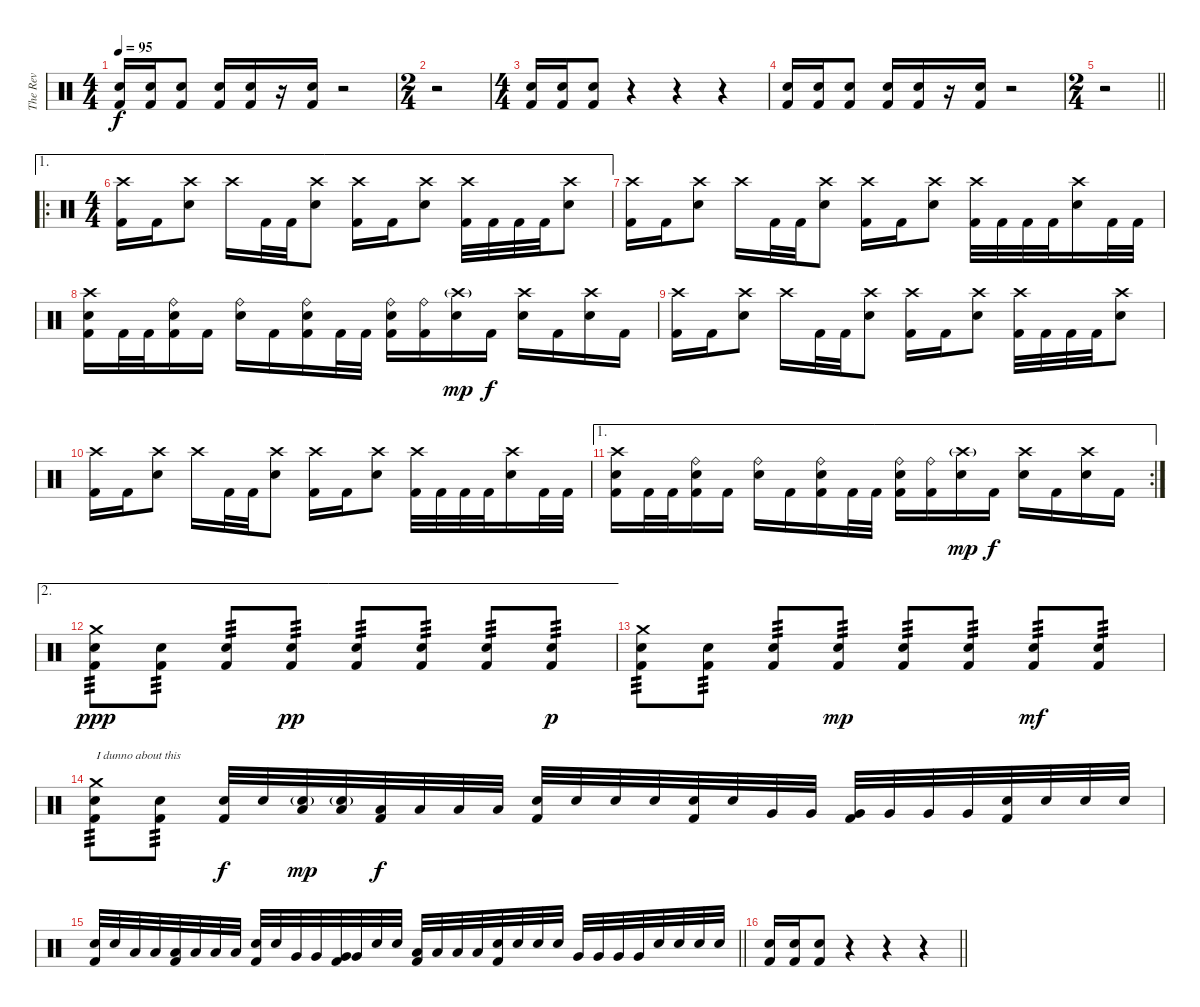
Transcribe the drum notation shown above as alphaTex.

\track ("The Rev" "The Rev") {instrument percussion}
\staff {score}
\articulation defaults
\ts (4 4)
\tempo 95
\clef neutral
\ks c
("Electric Snare (hit)" "Kick (hit) 2").16{dy f} ("Electric Snare (hit)" "Kick (hit) 2").16 ("Electric Snare (hit)" "Kick (hit) 2").8 ("Electric Snare (hit)" "Kick (hit) 2").16 ("Electric Snare (hit)" "Kick (hit) 2").16 r.16 ("Electric Snare (hit)" "Kick (hit) 2").16 r.2 |
\ts (2 4)
r.2 |
\ts (4 4)
("Electric Snare (hit)" "Kick (hit) 2").16 ("Electric Snare (hit)" "Kick (hit) 2").16 ("Electric Snare (hit)" "Kick (hit) 2").8 r.4 r.4 r.4 |
("Electric Snare (hit)" "Kick (hit) 2").16 ("Electric Snare (hit)" "Kick (hit) 2").16 ("Electric Snare (hit)" "Kick (hit) 2").8 ("Electric Snare (hit)" "Kick (hit) 2").16 ("Electric Snare (hit)" "Kick (hit) 2").16 r.16 ("Electric Snare (hit)" "Kick (hit) 2").16 r.2 |
\ts (2 4)
\barLineRight lightlight
r.2 |
\ae 1
\ro
\ts (4 4)
("Crash high (hit)" "Kick (hit) 2").16 "Kick (hit) 2".16 ("Crash high (hit)" "Electric Snare (hit)").8 "Crash high (hit)".16 "Kick (hit) 2".32 "Kick (hit) 2".32 ("Crash high (hit)" "Electric Snare (hit)").8 ("Crash high (hit)" "Kick (hit) 2").16 "Kick (hit) 2".16 ("Crash high (hit)" "Electric Snare (hit)").8 ("Crash high (hit)" "Kick (hit) 2").32 "Kick (hit) 2".32 "Kick (hit) 2".32 "Kick (hit) 2".32 ("Crash high (hit)" "Electric Snare (hit)").8 |
("Crash high (hit)" "Kick (hit) 2").16 "Kick (hit) 2".16 ("Crash high (hit)" "Electric Snare (hit)").8 "Crash high (hit)".16 "Kick (hit) 2".32 "Kick (hit) 2".32 ("Crash high (hit)" "Electric Snare (hit)").8 ("Crash high (hit)" "Kick (hit) 2").16 "Kick (hit) 2".16 ("Crash high (hit)" "Electric Snare (hit)").8 ("Crash high (hit)" "Kick (hit) 2").32 "Kick (hit) 2".32 "Kick (hit) 2".32 "Kick (hit) 2".32 ("Crash high (hit)" "Electric Snare (hit)").16 "Kick (hit) 2".32 "Kick (hit) 2".32 |
("Crash high (hit)" "Electric Snare (hit)" "Kick (hit) 2").16 "Kick (hit) 2".32 "Kick (hit) 2".32 ("Ride (bell)" "Electric Snare (hit)" "Kick (hit) 2").16 "Kick (hit) 2".16 ("Ride (bell)" "Electric Snare (hit)").16 "Kick (hit) 2".16 ("Ride (bell)" "Electric Snare (hit)" "Kick (hit) 2").16 "Kick (hit) 2".32 "Kick (hit) 2".32 ("Ride (bell)" "Electric Snare (hit)" "Kick (hit) 2").16 ("Ride (bell)" "Kick (hit) 2").16 ("Crash high (hit)"{g} "Electric Snare (hit)").16{dy mp} "Kick (hit) 2".16{dy f} ("Crash high (hit)" "Electric Snare (hit)").16 "Kick (hit) 2".16 ("Crash high (hit)" "Electric Snare (hit)").16 "Kick (hit) 2".16 |
("Crash high (hit)" "Kick (hit) 2").16 "Kick (hit) 2".16 ("Crash high (hit)" "Electric Snare (hit)").8 "Crash high (hit)".16 "Kick (hit) 2".32 "Kick (hit) 2".32 ("Crash high (hit)" "Electric Snare (hit)").8 ("Crash high (hit)" "Kick (hit) 2").16 "Kick (hit) 2".16 ("Crash high (hit)" "Electric Snare (hit)").8 ("Crash high (hit)" "Kick (hit) 2").32 "Kick (hit) 2".32 "Kick (hit) 2".32 "Kick (hit) 2".32 ("Crash high (hit)" "Electric Snare (hit)").8 |
("Crash high (hit)" "Kick (hit) 2").16 "Kick (hit) 2".16 ("Crash high (hit)" "Electric Snare (hit)").8 "Crash high (hit)".16 "Kick (hit) 2".32 "Kick (hit) 2".32 ("Crash high (hit)" "Electric Snare (hit)").8 ("Crash high (hit)" "Kick (hit) 2").16 "Kick (hit) 2".16 ("Crash high (hit)" "Electric Snare (hit)").8 ("Crash high (hit)" "Kick (hit) 2").32 "Kick (hit) 2".32 "Kick (hit) 2".32 "Kick (hit) 2".32 ("Crash high (hit)" "Electric Snare (hit)").16 "Kick (hit) 2".32 "Kick (hit) 2".32 |
\ae 1
\rc 2
("Crash high (hit)" "Electric Snare (hit)" "Kick (hit) 2").16 "Kick (hit) 2".32 "Kick (hit) 2".32 ("Ride (bell)" "Electric Snare (hit)" "Kick (hit) 2").16 "Kick (hit) 2".16 ("Ride (bell)" "Electric Snare (hit)").16 "Kick (hit) 2".16 ("Ride (bell)" "Electric Snare (hit)" "Kick (hit) 2").16 "Kick (hit) 2".32 "Kick (hit) 2".32 ("Ride (bell)" "Electric Snare (hit)" "Kick (hit) 2").16 ("Ride (bell)" "Kick (hit) 2").16 ("Crash high (hit)"{g} "Electric Snare (hit)").16{dy mp} "Kick (hit) 2".16{dy f} ("Crash high (hit)" "Electric Snare (hit)").16 "Kick (hit) 2".16 ("Crash high (hit)" "Electric Snare (hit)").16 "Kick (hit) 2".16 |
\ae 2
("Crash medium (hit)" "Electric Snare (hit)" "Kick (hit) 2").8{tp 3 dy ppp} ("Electric Snare (hit)" "Kick (hit) 2").8{tp 3} ("Electric Snare (hit)" "Kick (hit) 2").8{tp 3} ("Electric Snare (hit)" "Kick (hit) 2").8{tp 3 dy pp} ("Electric Snare (hit)" "Kick (hit) 2").8{tp 3} ("Electric Snare (hit)" "Kick (hit) 2").8{tp 3} ("Electric Snare (hit)" "Kick (hit) 2").8{tp 3} ("Electric Snare (hit)" "Kick (hit) 2").8{tp 3 dy p} |
("Crash medium (hit)" "Electric Snare (hit)" "Kick (hit) 2").8{tp 3} ("Electric Snare (hit)" "Kick (hit) 2").8{tp 3} ("Electric Snare (hit)" "Kick (hit) 2").8{tp 3} ("Electric Snare (hit)" "Kick (hit) 2").8{tp 3 dy mp} ("Electric Snare (hit)" "Kick (hit) 2").8{tp 3} ("Electric Snare (hit)" "Kick (hit) 2").8{tp 3} ("Electric Snare (hit)" "Kick (hit) 2").8{tp 3 dy mf} ("Electric Snare (hit)" "Kick (hit) 2").8{tp 3} |
("Crash medium (hit)" "Electric Snare (hit)" "Kick (hit) 2").8{txt "I dunno about this" tp 3} ("Electric Snare (hit)" "Kick (hit) 2").8{tp 3} ("Electric Snare (hit)" "Kick (hit) 2").32{dy f} "Electric Snare (hit)".32 ("Low Tom (hit)" "Electric Snare (hit)"{g}).32{dy mp} ("Low Tom (hit)" "Electric Snare (hit)"{g}).32 ("Low Tom (hit)" "Kick (hit) 2").32{dy f} "Low Tom (hit)".32 "Low Tom (hit)".32 "Low Tom (hit)".32 ("Electric Snare (hit)" "Kick (hit) 2").32 "Electric Snare (hit)".32 "Electric Snare (hit)".32 "Electric Snare (hit)".32 ("Electric Snare (hit)" "Kick (hit) 2").32 "Electric Snare (hit)".32 "Very Low Tom (hit)".32 "Very Low Tom (hit)".32 ("Very Low Tom (hit)" "Kick (hit) 2").32 "Very Low Tom (hit)".32 "Very Low Tom (hit)".32 "Very Low Tom (hit)".32 ("Electric Snare (hit)" "Kick (hit) 2").32 "Electric Snare (hit)".32 "Electric Snare (hit)".32 "Electric Snare (hit)".32 |
\barLineRight lightlight
("Electric Snare (hit)" "Kick (hit) 2").32 "Electric Snare (hit)".32 "Low Tom (hit)".32 "Low Tom (hit)".32 ("Low Tom (hit)" "Kick (hit) 2").32 "Low Tom (hit)".32 "Low Tom (hit)".32 "Low Tom (hit)".32 ("Electric Snare (hit)" "Kick (hit) 2").32 "Electric Snare (hit)".32 "Very Low Tom (hit)".32 "Very Low Tom (hit)".32 ("Very Low Tom (hit)" "Kick (hit) 2").32 "Very Low Tom (hit)".32 "Electric Snare (hit)".32 "Electric Snare (hit)".32 ("Low Tom (hit)" "Kick (hit) 2").32 "Low Tom (hit)".32 "Low Tom (hit)".32 "Low Tom (hit)".32 ("Electric Snare (hit)" "Kick (hit) 2").32 "Electric Snare (hit)".32 "Electric Snare (hit)".32 "Electric Snare (hit)".32 "Very Low Tom (hit)".32 "Very Low Tom (hit)".32 "Very Low Tom (hit)".32 "Very Low Tom (hit)".32 "Electric Snare (hit)".32 "Electric Snare (hit)".32 "Electric Snare (hit)".32 "Electric Snare (hit)".32 |
\barLineRight lightlight
("Electric Snare (hit)" "Kick (hit) 2").16 ("Electric Snare (hit)" "Kick (hit) 2").16 ("Electric Snare (hit)" "Kick (hit) 2").8 r.4 r.4 r.4
